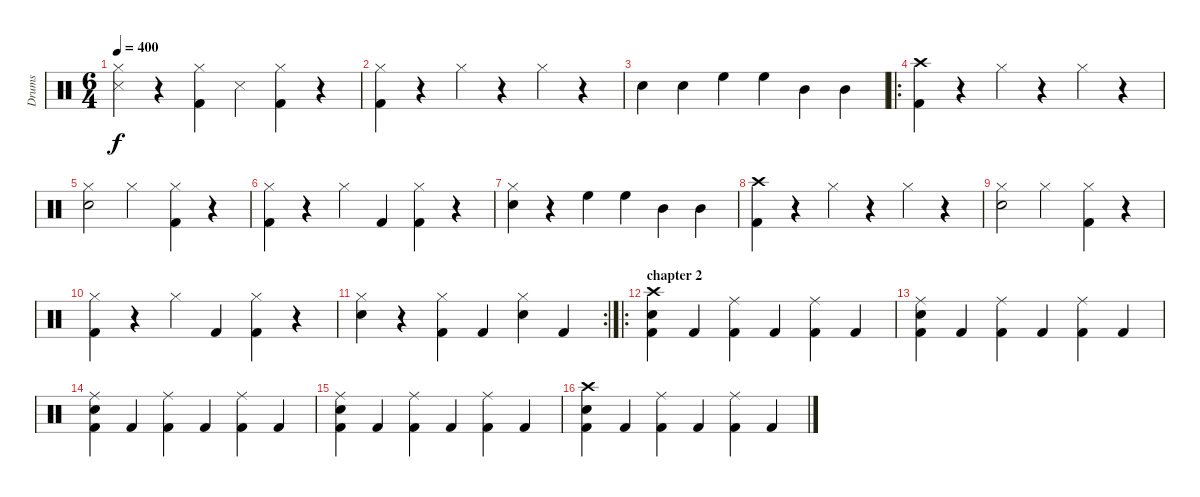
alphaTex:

\track ("Drums" "Drums") {instrument percussion}
\staff {score}
\articulation defaults
\ts (6 4)
\tempo 400
\clef neutral
\ks c
("Hi-Hat (closed)" "Snare (side stick) 3").4{dy f} r.4 ("Hi-Hat (closed)" "Kick (hit) 2").4 "Snare (side stick) 3".4 ("Hi-Hat (closed)" "Kick (hit) 2").4 r.4 |
("Hi-Hat (closed)" "Kick (hit) 2").4 r.4 "Hi-Hat (closed)".4 r.4 "Hi-Hat (closed)".4 r.4 |
"Snare (hit) 2".4 "Snare (hit) 2".4 "High Floor Tom (hit)".4 "High Floor Tom (hit)".4 "Mid Tom (hit)".4 "Mid Tom (hit)".4 |
\ro
("Crash high (hit)" "Kick (hit) 2").4 r.4 "Hi-Hat (closed)".4 r.4 "Hi-Hat (closed)".4 r.4 |
("Hi-Hat (closed)" "Snare (hit) 2").2 "Hi-Hat (closed)".2 ("Hi-Hat (closed)" "Kick (hit) 2").4 r.4 |
("Hi-Hat (closed)" "Kick (hit) 2").4 r.4 "Hi-Hat (closed)".4 "Kick (hit) 2".4 ("Hi-Hat (closed)" "Kick (hit) 2").4 r.4 |
("Hi-Hat (closed)" "Snare (hit) 2").4 r.4 "High Floor Tom (hit)".4 "High Floor Tom (hit)".4 "Mid Tom (hit)".4 "Mid Tom (hit)".4 |
("Crash high (hit)" "Kick (hit) 2").4 r.4 "Hi-Hat (closed)".4 r.4 "Hi-Hat (closed)".4 r.4 |
("Hi-Hat (closed)" "Snare (hit) 2").2 "Hi-Hat (closed)".2 ("Hi-Hat (closed)" "Kick (hit) 2").4 r.4 |
("Hi-Hat (closed)" "Kick (hit) 2").4 r.4 "Hi-Hat (closed)".4 "Kick (hit) 2".4 ("Hi-Hat (closed)" "Kick (hit) 2").4 r.4 |
\rc 2
("Hi-Hat (closed)" "Snare (hit) 2").4 r.4 ("Hi-Hat (closed)" "Kick (hit) 2").4 "Kick (hit) 2".4 ("Hi-Hat (closed)" "Snare (hit) 2").4 "Kick (hit) 2".4 |
\ro
\section ("" "chapter 2")
("Crash high (hit)" "Snare (hit) 2" "Kick (hit) 2").4 "Kick (hit) 2".4 ("Ride (middle)" "Kick (hit) 2").4 "Kick (hit) 2".4 ("Ride (middle)" "Kick (hit) 2").4 "Kick (hit) 2".4 |
("Ride (middle)" "Snare (hit) 2" "Kick (hit) 2").4 "Kick (hit) 2".4 ("Ride (middle)" "Kick (hit) 2").4 "Kick (hit) 2".4 ("Ride (middle)" "Kick (hit) 2").4 "Kick (hit) 2".4 |
("Ride (middle)" "Snare (hit) 2" "Kick (hit) 2").4 "Kick (hit) 2".4 ("Ride (middle)" "Kick (hit) 2").4 "Kick (hit) 2".4 ("Ride (middle)" "Kick (hit) 2").4 "Kick (hit) 2".4 |
("Ride (middle)" "Snare (hit) 2" "Kick (hit) 2").4 "Kick (hit) 2".4 ("Ride (middle)" "Kick (hit) 2").4 "Kick (hit) 2".4 ("Ride (middle)" "Kick (hit) 2").4 "Kick (hit) 2".4 |
("Crash high (hit)" "Snare (hit) 2" "Kick (hit) 2").4 "Kick (hit) 2".4 ("Ride (middle)" "Kick (hit) 2").4 "Kick (hit) 2".4 ("Ride (middle)" "Kick (hit) 2").4 "Kick (hit) 2".4
